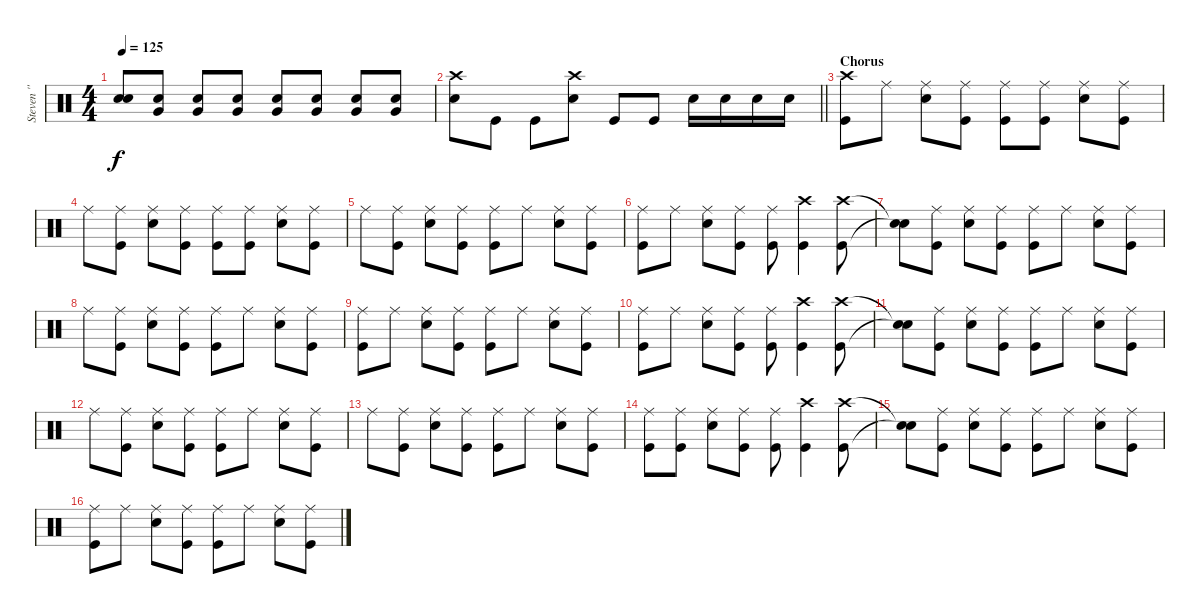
\track ("Steven '' Popcorn '' Adler" "Steven '' ") {instrument percussion}
\staff {score}
\articulation defaults
\ts (4 4)
\tempo 125
\clef neutral
\ks c
("Snare (hit) 2" "Snare (hit) 2").8{dy f} ("Snare (hit) 2" "Very Low Tom (hit)").8 ("Snare (hit) 2" "Very Low Tom (hit)").8 ("Snare (hit) 2" "Very Low Tom (hit)").8 ("Snare (hit) 2" "Very Low Tom (hit)").8 ("Snare (hit) 2" "Very Low Tom (hit)").8 ("Snare (hit) 2" "Very Low Tom (hit)").8 ("Snare (hit) 2" "Very Low Tom (hit)").8 |
\barLineRight lightlight
("Crash high (hit)" "Snare (hit) 2").8 "Kick (hit)".8 "Kick (hit)".8 ("Crash high (hit)" "Snare (hit) 2").8 "Kick (hit)".8 "Kick (hit)".8 "Electric Snare (hit)".16 "Electric Snare (hit)".16 "Electric Snare (hit)".16 "Electric Snare (hit)".16 |
\section ("" "Chorus")
("Crash high (hit)" "Kick (hit)").8 "Ride (middle)".8 ("Ride (middle)" "Snare (hit) 2").8 ("Ride (middle)" "Kick (hit)").8 ("Ride (middle)" "Kick (hit)").8 ("Ride (middle)" "Kick (hit)").8 ("Ride (middle)" "Snare (hit) 2").8 ("Ride (middle)" "Kick (hit)").8 |
"Ride (middle)".8 ("Ride (middle)" "Kick (hit)").8 ("Ride (middle)" "Snare (hit) 2").8 ("Ride (middle)" "Kick (hit)").8 ("Ride (middle)" "Kick (hit)").8 ("Ride (middle)" "Kick (hit)").8 ("Ride (middle)" "Snare (hit) 2").8 ("Ride (middle)" "Kick (hit)").8 |
"Ride (middle)".8 ("Ride (middle)" "Kick (hit)").8 ("Ride (middle)" "Snare (hit) 2").8 ("Ride (middle)" "Kick (hit)").8 ("Ride (middle)" "Kick (hit)").8 "Ride (middle)".8 ("Ride (middle)" "Snare (hit) 2").8 ("Ride (middle)" "Kick (hit)").8 |
("Ride (middle)" "Kick (hit)").8 "Ride (middle)".8 ("Ride (middle)" "Snare (hit) 2").8 ("Ride (middle)" "Kick (hit)").8 ("Ride (middle)" "Kick (hit)").8 ("Crash high (hit)" "Kick (hit)").4 ("Crash high (hit)" "Kick (hit)").8 |
("Snare (hit)"{t} "Snare (hit)"{t}).8 ("Ride (middle)" "Kick (hit)").8 ("Ride (middle)" "Snare (hit) 2").8 ("Ride (middle)" "Kick (hit)").8 ("Ride (middle)" "Kick (hit)").8 "Ride (middle)".8 ("Ride (middle)" "Snare (hit) 2").8 ("Ride (middle)" "Kick (hit)").8 |
"Ride (middle)".8 ("Ride (middle)" "Kick (hit)").8 ("Ride (middle)" "Snare (hit) 2").8 ("Ride (middle)" "Kick (hit)").8 ("Ride (middle)" "Kick (hit)").8 "Ride (middle)".8 ("Ride (middle)" "Snare (hit) 2").8 ("Ride (middle)" "Kick (hit)").8 |
("Ride (middle)" "Kick (hit)").8 "Ride (middle)".8 ("Ride (middle)" "Snare (hit) 2").8 ("Ride (middle)" "Kick (hit)").8 ("Ride (middle)" "Kick (hit)").8 "Ride (middle)".8 ("Ride (middle)" "Snare (hit) 2").8 ("Ride (middle)" "Kick (hit)").8 |
("Ride (middle)" "Kick (hit)").8 "Ride (middle)".8 ("Ride (middle)" "Snare (hit) 2").8 ("Ride (middle)" "Kick (hit)").8 ("Ride (middle)" "Kick (hit)").8 ("Crash high (hit)" "Kick (hit)").4 ("Crash high (hit)" "Kick (hit)").8 |
("Snare (hit)"{t} "Snare (hit)"{t}).8 ("Ride (middle)" "Kick (hit)").8 ("Ride (middle)" "Snare (hit) 2").8 ("Ride (middle)" "Kick (hit)").8 ("Ride (middle)" "Kick (hit)").8 "Ride (middle)".8 ("Ride (middle)" "Snare (hit) 2").8 ("Ride (middle)" "Kick (hit)").8 |
"Ride (middle)".8 ("Ride (middle)" "Kick (hit)").8 ("Ride (middle)" "Snare (hit) 2").8 ("Ride (middle)" "Kick (hit)").8 ("Ride (middle)" "Kick (hit)").8 "Ride (middle)".8 ("Ride (middle)" "Snare (hit) 2").8 ("Ride (middle)" "Kick (hit)").8 |
"Ride (middle)".8 ("Ride (middle)" "Kick (hit)").8 ("Ride (middle)" "Snare (hit) 2").8 ("Ride (middle)" "Kick (hit)").8 ("Ride (middle)" "Kick (hit)").8 "Ride (middle)".8 ("Ride (middle)" "Snare (hit) 2").8 ("Ride (middle)" "Kick (hit)").8 |
("Ride (middle)" "Kick (hit)").8 ("Ride (middle)" "Kick (hit)").8 ("Ride (middle)" "Snare (hit) 2").8 ("Ride (middle)" "Kick (hit)").8 ("Ride (middle)" "Kick (hit)").8 ("Crash high (hit)" "Kick (hit)").4 ("Crash high (hit)" "Kick (hit)").8 |
("Snare (hit)"{t} "Snare (hit)"{t}).8 ("Ride (middle)" "Kick (hit)").8 ("Ride (middle)" "Snare (hit) 2").8 ("Ride (middle)" "Kick (hit)").8 ("Ride (middle)" "Kick (hit)").8 "Ride (middle)".8 ("Ride (middle)" "Snare (hit) 2").8 ("Ride (middle)" "Kick (hit)").8 |
("Ride (middle)" "Kick (hit)").8 "Ride (middle)".8 ("Ride (middle)" "Snare (hit) 2").8 ("Ride (middle)" "Kick (hit)").8 ("Ride (middle)" "Kick (hit)").8 "Ride (middle)".8 ("Ride (middle)" "Snare (hit) 2").8 ("Ride (middle)" "Kick (hit)").8
